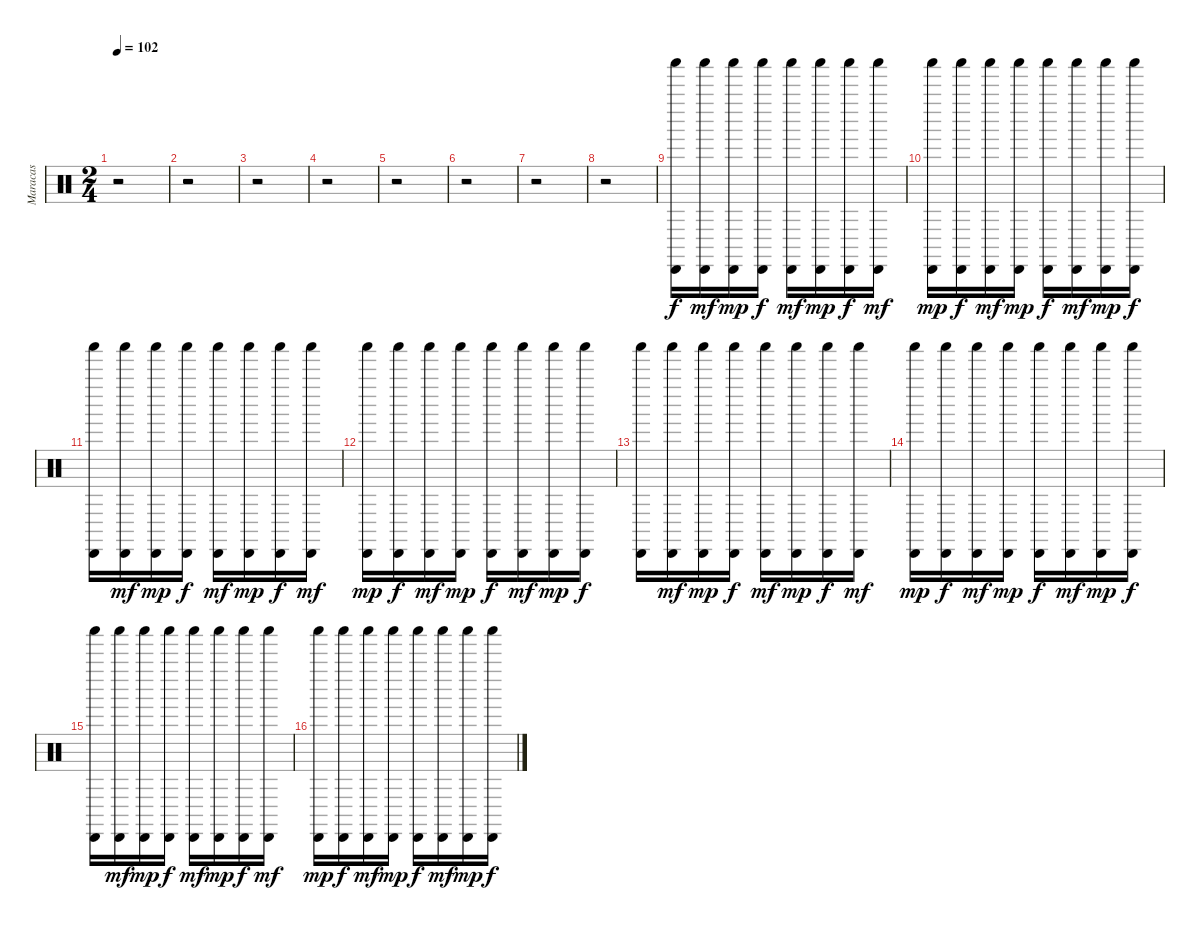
\track ("Maracas" "Maracas") {instrument percussion}
\staff {score}
\articulation defaults
\ts (2 4)
\tempo 102
\clef neutral
\ks c
r.2{dy f} |
r.2 |
r.2 |
r.2 |
r.2 |
r.2 |
r.2 |
r.2 |
("Cabasa (hit)" "Shaker (hit)").16 ("Shaker (hit)" "Cabasa (hit)").16{dy mf} ("Shaker (hit)" "Cabasa (hit)").16{dy mp} ("Shaker (hit)" "Cabasa (hit)").16{dy f} ("Shaker (hit)" "Cabasa (hit)").16{dy mf} ("Shaker (hit)" "Cabasa (hit)").16{dy mp} ("Shaker (hit)" "Cabasa (hit)").16{dy f} ("Shaker (hit)" "Cabasa (hit)").16{dy mf} |
("Shaker (hit)" "Cabasa (hit)").16{dy mp} ("Shaker (hit)" "Cabasa (hit)").16{dy f} ("Shaker (hit)" "Cabasa (hit)").16{dy mf} ("Shaker (hit)" "Cabasa (hit)").16{dy mp} ("Shaker (hit)" "Cabasa (hit)").16{dy f} ("Shaker (hit)" "Cabasa (hit)").16{dy mf} ("Shaker (hit)" "Cabasa (hit)").16{dy mp} ("Shaker (hit)" "Cabasa (hit)").16{dy f} |
("Cabasa (hit)" "Shaker (hit)").16 ("Cabasa (hit)" "Shaker (hit)").16{dy mf} ("Cabasa (hit)" "Shaker (hit)").16{dy mp} ("Cabasa (hit)" "Shaker (hit)").16{dy f} ("Cabasa (hit)" "Shaker (hit)").16{dy mf} ("Cabasa (hit)" "Shaker (hit)").16{dy mp} ("Cabasa (hit)" "Shaker (hit)").16{dy f} ("Cabasa (hit)" "Shaker (hit)").16{dy mf} |
("Cabasa (hit)" "Shaker (hit)").16{dy mp} ("Cabasa (hit)" "Shaker (hit)").16{dy f} ("Cabasa (hit)" "Shaker (hit)").16{dy mf} ("Cabasa (hit)" "Shaker (hit)").16{dy mp} ("Cabasa (hit)" "Shaker (hit)").16{dy f} ("Cabasa (hit)" "Shaker (hit)").16{dy mf} ("Cabasa (hit)" "Shaker (hit)").16{dy mp} ("Cabasa (hit)" "Shaker (hit)").16{dy f} |
("Cabasa (hit)" "Shaker (hit)").16 ("Cabasa (hit)" "Shaker (hit)").16{dy mf} ("Cabasa (hit)" "Shaker (hit)").16{dy mp} ("Cabasa (hit)" "Shaker (hit)").16{dy f} ("Cabasa (hit)" "Shaker (hit)").16{dy mf} ("Cabasa (hit)" "Shaker (hit)").16{dy mp} ("Cabasa (hit)" "Shaker (hit)").16{dy f} ("Cabasa (hit)" "Shaker (hit)").16{dy mf} |
("Cabasa (hit)" "Shaker (hit)").16{dy mp} ("Cabasa (hit)" "Shaker (hit)").16{dy f} ("Cabasa (hit)" "Shaker (hit)").16{dy mf} ("Cabasa (hit)" "Shaker (hit)").16{dy mp} ("Cabasa (hit)" "Shaker (hit)").16{dy f} ("Cabasa (hit)" "Shaker (hit)").16{dy mf} ("Cabasa (hit)" "Shaker (hit)").16{dy mp} ("Cabasa (hit)" "Shaker (hit)").16{dy f} |
("Cabasa (hit)" "Shaker (hit)").16 ("Cabasa (hit)" "Shaker (hit)").16{dy mf} ("Cabasa (hit)" "Shaker (hit)").16{dy mp} ("Cabasa (hit)" "Shaker (hit)").16{dy f} ("Cabasa (hit)" "Shaker (hit)").16{dy mf} ("Cabasa (hit)" "Shaker (hit)").16{dy mp} ("Cabasa (hit)" "Shaker (hit)").16{dy f} ("Cabasa (hit)" "Shaker (hit)").16{dy mf} |
("Cabasa (hit)" "Shaker (hit)").16{dy mp} ("Cabasa (hit)" "Shaker (hit)").16{dy f} ("Cabasa (hit)" "Shaker (hit)").16{dy mf} ("Cabasa (hit)" "Shaker (hit)").16{dy mp} ("Cabasa (hit)" "Shaker (hit)").16{dy f} ("Cabasa (hit)" "Shaker (hit)").16{dy mf} ("Cabasa (hit)" "Shaker (hit)").16{dy mp} ("Cabasa (hit)" "Shaker (hit)").16{dy f}
